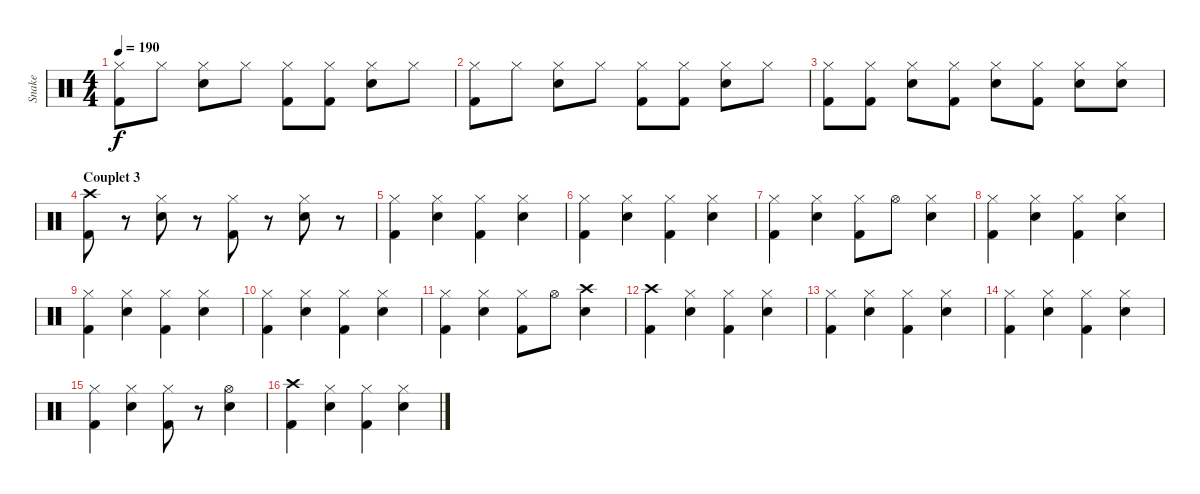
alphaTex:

\track ("Snake" "Snake") {instrument percussion}
\staff {score}
\articulation defaults
\ts (4 4)
\tempo 190
\clef neutral
\ks c
("Hi-Hat (closed)" "Kick (hit) 2").8{dy f} "Hi-Hat (closed)".8 ("Hi-Hat (closed)" "Snare (hit) 2").8 "Hi-Hat (closed)".8 ("Hi-Hat (closed)" "Kick (hit) 2").8 ("Hi-Hat (closed)" "Kick (hit) 2").8 ("Hi-Hat (closed)" "Snare (hit) 2").8 "Hi-Hat (closed)".8 |
("Hi-Hat (closed)" "Kick (hit) 2").8 "Hi-Hat (closed)".8 ("Hi-Hat (closed)" "Snare (hit) 2").8 "Hi-Hat (closed)".8 ("Hi-Hat (closed)" "Kick (hit) 2").8 ("Hi-Hat (closed)" "Kick (hit) 2").8 ("Hi-Hat (closed)" "Snare (hit) 2").8 "Hi-Hat (closed)".8 |
("Hi-Hat (closed)" "Kick (hit) 2").8 ("Hi-Hat (closed)" "Kick (hit) 2").8 ("Hi-Hat (closed)" "Snare (hit) 2").8 ("Hi-Hat (closed)" "Kick (hit) 2").8 ("Hi-Hat (closed)" "Snare (hit) 2").8 ("Hi-Hat (closed)" "Kick (hit) 2").8 ("Hi-Hat (closed)" "Snare (hit) 2").8 ("Hi-Hat (closed)" "Snare (hit) 2").8 |
\section ("" "Couplet 3")
("Crash high (hit)" "Kick (hit) 2").8 r.8 ("Hi-Hat (closed)" "Snare (hit) 2").8 r.8 ("Hi-Hat (closed)" "Kick (hit) 2").8 r.8 ("Hi-Hat (closed)" "Snare (hit) 2").8 r.8 |
("Hi-Hat (closed)" "Kick (hit) 2").4 ("Hi-Hat (closed)" "Snare (hit) 2").4 ("Hi-Hat (closed)" "Kick (hit) 2").4 ("Hi-Hat (closed)" "Snare (hit) 2").4 |
("Hi-Hat (closed)" "Kick (hit) 2").4 ("Hi-Hat (closed)" "Snare (hit) 2").4 ("Hi-Hat (closed)" "Kick (hit) 2").4 ("Hi-Hat (closed)" "Snare (hit) 2").4 |
("Hi-Hat (closed)" "Kick (hit) 2").4 ("Hi-Hat (closed)" "Snare (hit) 2").4 ("Hi-Hat (closed)" "Kick (hit) 2").8 "Hi-Hat (open)".8 ("Hi-Hat (closed)" "Snare (hit) 2").4 |
("Hi-Hat (closed)" "Kick (hit) 2").4 ("Hi-Hat (closed)" "Snare (hit) 2").4 ("Hi-Hat (closed)" "Kick (hit) 2").4 ("Hi-Hat (closed)" "Snare (hit) 2").4 |
("Hi-Hat (closed)" "Kick (hit) 2").4 ("Hi-Hat (closed)" "Snare (hit) 2").4 ("Hi-Hat (closed)" "Kick (hit) 2").4 ("Hi-Hat (closed)" "Snare (hit) 2").4 |
("Hi-Hat (closed)" "Kick (hit) 2").4 ("Hi-Hat (closed)" "Snare (hit) 2").4 ("Hi-Hat (closed)" "Kick (hit) 2").4 ("Hi-Hat (closed)" "Snare (hit) 2").4 |
("Hi-Hat (closed)" "Kick (hit) 2").4 ("Hi-Hat (closed)" "Snare (hit) 2").4 ("Hi-Hat (closed)" "Kick (hit) 2").8 "Hi-Hat (open)".8 ("Crash high (hit)" "Snare (hit) 2").4 |
("Crash high (hit)" "Kick (hit) 2").4 ("Hi-Hat (closed)" "Snare (hit) 2").4 ("Hi-Hat (closed)" "Kick (hit) 2").4 ("Hi-Hat (closed)" "Snare (hit) 2").4 |
("Hi-Hat (closed)" "Kick (hit) 2").4 ("Hi-Hat (closed)" "Snare (hit) 2").4 ("Hi-Hat (closed)" "Kick (hit) 2").4 ("Hi-Hat (closed)" "Snare (hit) 2").4 |
("Hi-Hat (closed)" "Kick (hit) 2").4 ("Hi-Hat (closed)" "Snare (hit) 2").4 ("Hi-Hat (closed)" "Kick (hit) 2").4 ("Hi-Hat (closed)" "Snare (hit) 2").4 |
("Hi-Hat (closed)" "Kick (hit) 2").4 ("Hi-Hat (closed)" "Snare (hit) 2").4 ("Hi-Hat (closed)" "Kick (hit) 2").8 r.8 ("Hi-Hat (open)" "Snare (hit) 2").4 |
("Crash high (hit)" "Kick (hit) 2").4 ("Hi-Hat (closed)" "Snare (hit) 2").4 ("Hi-Hat (closed)" "Kick (hit) 2").4 ("Hi-Hat (closed)" "Snare (hit) 2").4
